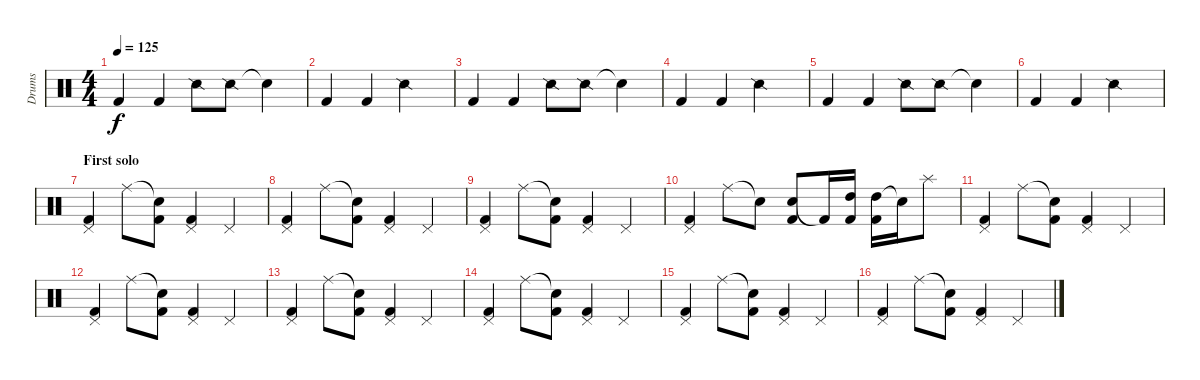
\track ("Drums" "Drums") {instrument percussion}
\staff {score}
\articulation defaults
\ts (4 4)
\tempo 125
\clef neutral
\ks c "Kick (hit) 2".4{dy f} "Kick (hit) 2".4 "Snare (side stick) 2".8 "Snare (side stick) 2".8 "Snare (hit)"{t}.4
|
"Kick (hit) 2".4 "Kick (hit) 2".4 "Snare (side stick) 2".2 |
"Kick (hit) 2".4 "Kick (hit) 2".4 "Snare (side stick) 2".8 "Snare (side stick) 2".8 "Snare (hit)"{t}.4 |
"Kick (hit) 2".4 "Kick (hit) 2".4 "Snare (side stick) 2".2 |
"Kick (hit) 2".4 "Kick (hit) 2".4 "Snare (side stick) 2".8 "Snare (side stick) 2".8 "Snare (hit)"{t}.4 |
"Kick (hit) 2".4 "Kick (hit) 2".4 "Snare (side stick) 2".2 |
\section ("" "First solo")
("Pedal Hi-Hat (hit)" "Kick (hit) 2").4{volume 16} "Ride (middle)".8 ("Snare (hit)"{t} "Kick (hit) 2").8 ("Pedal Hi-Hat (hit)" "Kick (hit) 2").4 "Pedal Hi-Hat (hit)".4 |
("Pedal Hi-Hat (hit)" "Kick (hit) 2").4 "Ride (middle)".8 ("Snare (hit)"{t} "Kick (hit) 2").8 ("Pedal Hi-Hat (hit)" "Kick (hit) 2").4 "Pedal Hi-Hat (hit)".4 |
("Pedal Hi-Hat (hit)" "Kick (hit) 2").4 "Ride (middle)".8 ("Snare (hit)"{t} "Kick (hit) 2").8 ("Pedal Hi-Hat (hit)" "Kick (hit) 2").4 "Pedal Hi-Hat (hit)".4 |
("Pedal Hi-Hat (hit)" "Kick (hit) 2").4 "Ride (middle)".8 "Snare (hit)"{t}.8 ("Snare (hit) 2" "Kick (hit) 2").8 "Kick (hit) 2"{t}.16 ("High Tom (hit)" "Kick (hit) 2").16 ("High Tom (hit)" "Kick (hit) 2").16 "Snare (hit)"{t}.16 "Splash (hit)".8 |
("Pedal Hi-Hat (hit)" "Kick (hit) 2").4 "Ride (middle)".8 ("Snare (hit)"{t} "Kick (hit) 2").8 ("Pedal Hi-Hat (hit)" "Kick (hit) 2").4 "Pedal Hi-Hat (hit)".4 |
("Pedal Hi-Hat (hit)" "Kick (hit) 2").4 "Ride (middle)".8 ("Snare (hit)"{t} "Kick (hit) 2").8 ("Pedal Hi-Hat (hit)" "Kick (hit) 2").4 "Pedal Hi-Hat (hit)".4 |
("Pedal Hi-Hat (hit)" "Kick (hit) 2").4 "Ride (middle)".8 ("Snare (hit)"{t} "Kick (hit) 2").8 ("Pedal Hi-Hat (hit)" "Kick (hit) 2").4 "Pedal Hi-Hat (hit)".4 |
("Pedal Hi-Hat (hit)" "Kick (hit) 2").4 "Ride (middle)".8 ("Snare (hit)"{t} "Kick (hit) 2").8 ("Pedal Hi-Hat (hit)" "Kick (hit) 2").4 "Pedal Hi-Hat (hit)".4 |
("Pedal Hi-Hat (hit)" "Kick (hit) 2").4 "Ride (middle)".8 ("Snare (hit)"{t} "Kick (hit) 2").8 ("Pedal Hi-Hat (hit)" "Kick (hit) 2").4 "Pedal Hi-Hat (hit)".4 |
("Pedal Hi-Hat (hit)" "Kick (hit) 2").4 "Ride (middle)".8 ("Snare (hit)"{t} "Kick (hit) 2").8 ("Pedal Hi-Hat (hit)" "Kick (hit) 2").4 "Pedal Hi-Hat (hit)".4
